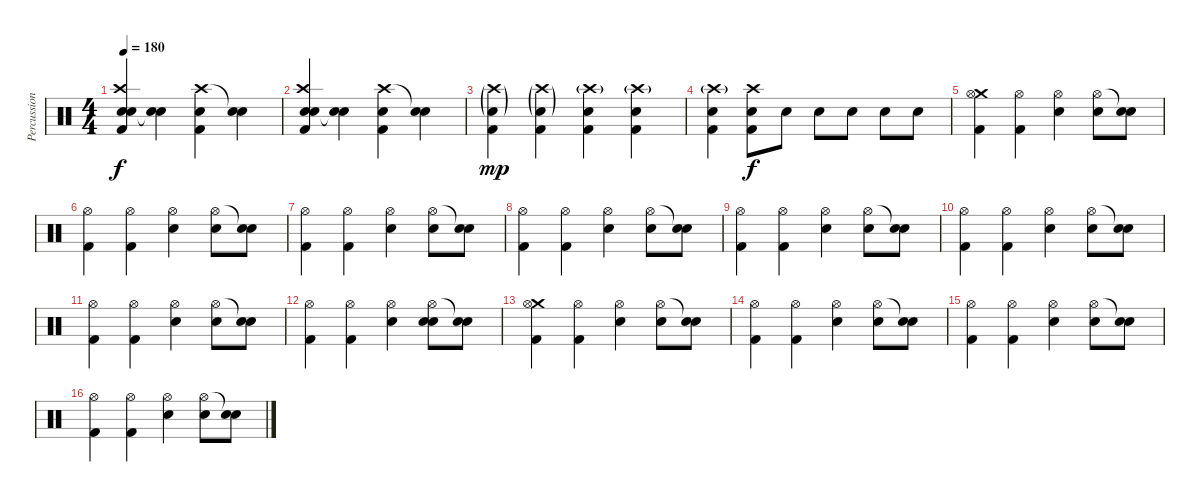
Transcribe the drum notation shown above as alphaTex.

\track ("Percussion" "Percussion") {instrument percussion}
\staff {score}
\articulation defaults
\ts (4 4)
\tempo 180
\clef neutral
\ks c
("Snare (hit)" "Crash high (hit)" "Electric Snare (hit)" "Kick (hit) 2").4{dy f} ("Snare (hit)"{t} "Snare (hit)").4 ("Crash high (hit)" "Electric Snare (hit)" "Kick (hit) 2").4 ("Snare (hit)"{t} "Snare (hit)").4 |
("Snare (hit)" "Crash high (hit)" "Electric Snare (hit)" "Kick (hit) 2").4 ("Snare (hit)"{t} "Snare (hit)").4 ("Crash high (hit)" "Electric Snare (hit)" "Kick (hit) 2").4 ("Snare (hit)"{t} "Snare (hit)").4 |
("Crash high (hit)"{g} "Electric Snare (hit)"{g} "Kick (hit) 2").4{dy mp} ("Crash high (hit)"{g} "Electric Snare (hit)"{g} "Kick (hit) 2").4 ("Crash high (hit)"{g} "Electric Snare (hit)" "Kick (hit) 2").4 ("Crash high (hit)"{g} "Electric Snare (hit)" "Kick (hit) 2").4 |
("Crash high (hit)"{g} "Electric Snare (hit)" "Kick (hit) 2").4 ("Crash high (hit)" "Electric Snare (hit)" "Kick (hit) 2").8{dy f} "Electric Snare (hit)".8 "Electric Snare (hit)".8 "Electric Snare (hit)".8 "Electric Snare (hit)".8 "Electric Snare (hit)".8 |
("Crash medium (hit)" "Hi-Hat (open)" "Kick (hit) 2").4 ("Hi-Hat (open)" "Kick (hit) 2").4 ("Hi-Hat (open)" "Electric Snare (hit)").4 ("Hi-Hat (open)" "Snare (hit)").8 ("Snare (hit)"{t} "Electric Snare (hit)").8 |
("Hi-Hat (open)" "Kick (hit) 2").4 ("Hi-Hat (open)" "Kick (hit) 2").4 ("Hi-Hat (open)" "Electric Snare (hit)").4 ("Hi-Hat (open)" "Snare (hit)").8 ("Snare (hit)"{t} "Electric Snare (hit)").8 |
("Hi-Hat (open)" "Kick (hit) 2").4 ("Hi-Hat (open)" "Kick (hit) 2").4 ("Hi-Hat (open)" "Electric Snare (hit)").4 ("Hi-Hat (open)" "Snare (hit)").8 ("Snare (hit)"{t} "Electric Snare (hit)").8 |
("Hi-Hat (open)" "Kick (hit) 2").4 ("Hi-Hat (open)" "Kick (hit) 2").4 ("Hi-Hat (open)" "Electric Snare (hit)").4 ("Hi-Hat (open)" "Snare (hit)").8 ("Snare (hit)"{t} "Electric Snare (hit)").8 |
("Hi-Hat (open)" "Kick (hit) 2").4 ("Hi-Hat (open)" "Kick (hit) 2").4 ("Hi-Hat (open)" "Electric Snare (hit)").4 ("Hi-Hat (open)" "Snare (hit)").8 ("Snare (hit)"{t} "Electric Snare (hit)").8 |
("Hi-Hat (open)" "Kick (hit) 2").4 ("Hi-Hat (open)" "Kick (hit) 2").4 ("Hi-Hat (open)" "Electric Snare (hit)").4 ("Hi-Hat (open)" "Snare (hit)").8 ("Snare (hit)"{t} "Electric Snare (hit)").8 |
("Hi-Hat (open)" "Kick (hit) 2").4 ("Hi-Hat (open)" "Kick (hit) 2").4 ("Hi-Hat (open)" "Electric Snare (hit)").4 ("Hi-Hat (open)" "Snare (hit)").8 ("Snare (hit)"{t} "Electric Snare (hit)").8 |
("Hi-Hat (open)" "Kick (hit) 2").4 ("Hi-Hat (open)" "Kick (hit) 2").4 ("Hi-Hat (open)" "Electric Snare (hit)").4 ("Hi-Hat (open)" "Electric Snare (hit)" "Snare (hit)").8 ("Snare (hit)"{t} "Electric Snare (hit)").8 |
("Crash medium (hit)" "Hi-Hat (open)" "Kick (hit) 2").4 ("Hi-Hat (open)" "Kick (hit) 2").4 ("Hi-Hat (open)" "Electric Snare (hit)").4 ("Hi-Hat (open)" "Snare (hit)").8 ("Snare (hit)"{t} "Electric Snare (hit)").8 |
("Hi-Hat (open)" "Kick (hit) 2").4 ("Hi-Hat (open)" "Kick (hit) 2").4 ("Hi-Hat (open)" "Electric Snare (hit)").4 ("Hi-Hat (open)" "Snare (hit)").8 ("Snare (hit)"{t} "Electric Snare (hit)").8 |
("Hi-Hat (open)" "Kick (hit) 2").4 ("Hi-Hat (open)" "Kick (hit) 2").4 ("Hi-Hat (open)" "Electric Snare (hit)").4 ("Hi-Hat (open)" "Snare (hit)").8 ("Snare (hit)"{t} "Electric Snare (hit)").8 |
("Hi-Hat (open)" "Kick (hit) 2").4 ("Hi-Hat (open)" "Kick (hit) 2").4 ("Hi-Hat (open)" "Electric Snare (hit)").4 ("Hi-Hat (open)" "Snare (hit)").8 ("Snare (hit)"{t} "Electric Snare (hit)").8
